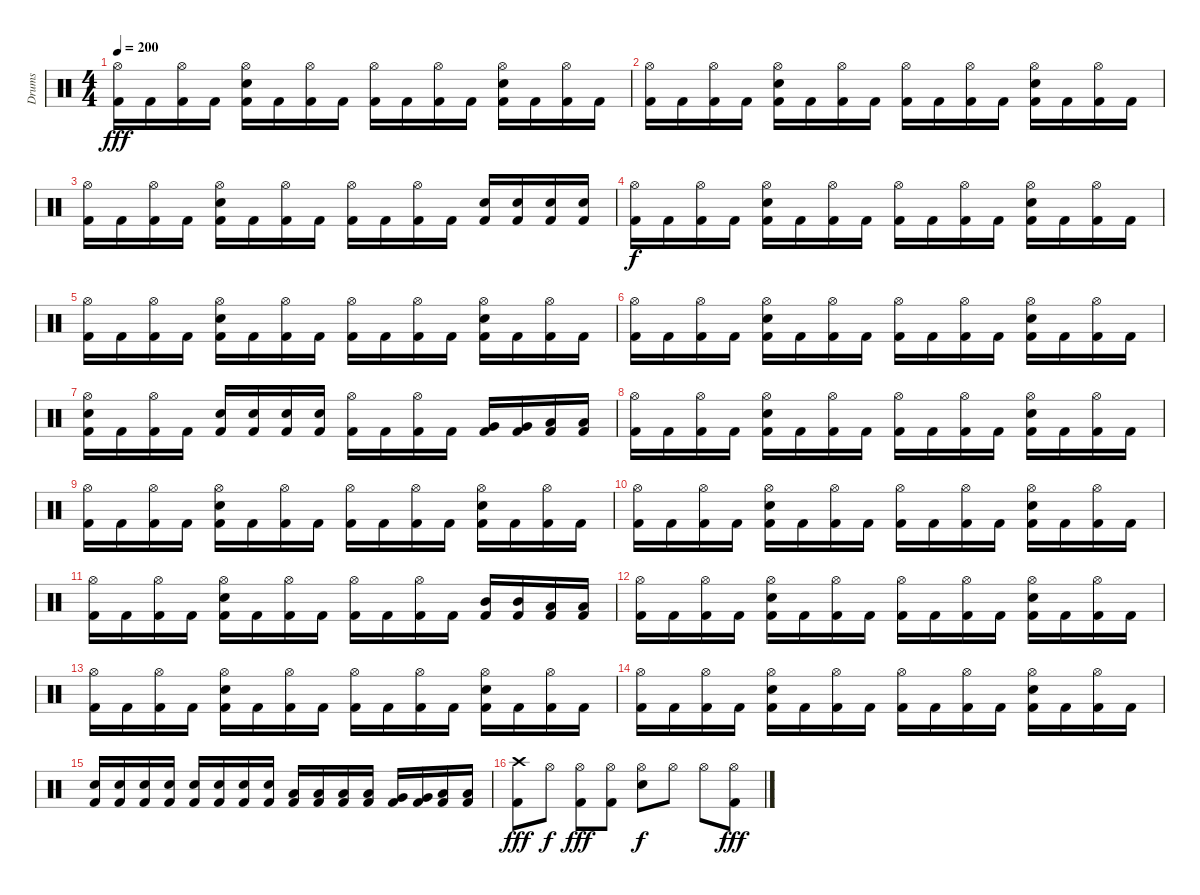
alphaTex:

\track ("Drums" "Drums") {instrument percussion}
\staff {score}
\articulation defaults
\ts (4 4)
\tempo 200
\clef neutral
\ks c
("Hi-Hat (open)" "Kick (hit) 2").16{dy fff} "Kick (hit) 2".16 ("Hi-Hat (open)" "Kick (hit) 2").16 "Kick (hit) 2".16 ("Hi-Hat (open)" "Electric Snare (hit)" "Kick (hit) 2").16 "Kick (hit) 2".16 ("Hi-Hat (open)" "Kick (hit) 2").16 "Kick (hit) 2".16 ("Hi-Hat (open)" "Kick (hit) 2").16 "Kick (hit) 2".16 ("Hi-Hat (open)" "Kick (hit) 2").16 "Kick (hit) 2".16 ("Hi-Hat (open)" "Electric Snare (hit)" "Kick (hit) 2").16 "Kick (hit) 2".16 ("Hi-Hat (open)" "Kick (hit) 2").16 "Kick (hit) 2".16 |
("Hi-Hat (open)" "Kick (hit) 2").16 "Kick (hit) 2".16 ("Hi-Hat (open)" "Kick (hit) 2").16 "Kick (hit) 2".16 ("Hi-Hat (open)" "Electric Snare (hit)" "Kick (hit) 2").16 "Kick (hit) 2".16 ("Hi-Hat (open)" "Kick (hit) 2").16 "Kick (hit) 2".16 ("Hi-Hat (open)" "Kick (hit) 2").16 "Kick (hit) 2".16 ("Hi-Hat (open)" "Kick (hit) 2").16 "Kick (hit) 2".16 ("Hi-Hat (open)" "Electric Snare (hit)" "Kick (hit) 2").16 "Kick (hit) 2".16 ("Hi-Hat (open)" "Kick (hit) 2").16 "Kick (hit) 2".16 |
("Hi-Hat (open)" "Kick (hit) 2").16 "Kick (hit) 2".16 ("Hi-Hat (open)" "Kick (hit) 2").16 "Kick (hit) 2".16 ("Hi-Hat (open)" "Electric Snare (hit)" "Kick (hit) 2").16 "Kick (hit) 2".16 ("Hi-Hat (open)" "Kick (hit) 2").16 "Kick (hit) 2".16 ("Hi-Hat (open)" "Kick (hit) 2").16 "Kick (hit) 2".16 ("Hi-Hat (open)" "Kick (hit) 2").16 "Kick (hit) 2".16 ("Electric Snare (hit)" "Kick (hit) 2").16 ("Electric Snare (hit)" "Kick (hit) 2").16 ("Electric Snare (hit)" "Kick (hit) 2").16 ("Electric Snare (hit)" "Kick (hit) 2").16 |
("Hi-Hat (open)" "Kick (hit) 2").16{dy f} "Kick (hit) 2".16 ("Hi-Hat (open)" "Kick (hit) 2").16 "Kick (hit) 2".16 ("Hi-Hat (open)" "Electric Snare (hit)" "Kick (hit) 2").16 "Kick (hit) 2".16 ("Hi-Hat (open)" "Kick (hit) 2").16 "Kick (hit) 2".16 ("Hi-Hat (open)" "Kick (hit) 2").16 "Kick (hit) 2".16 ("Hi-Hat (open)" "Kick (hit) 2").16 "Kick (hit) 2".16 ("Hi-Hat (open)" "Electric Snare (hit)" "Kick (hit) 2").16 "Kick (hit) 2".16 ("Hi-Hat (open)" "Kick (hit) 2").16 "Kick (hit) 2".16 |
("Hi-Hat (open)" "Kick (hit) 2").16 "Kick (hit) 2".16 ("Hi-Hat (open)" "Kick (hit) 2").16 "Kick (hit) 2".16 ("Hi-Hat (open)" "Electric Snare (hit)" "Kick (hit) 2").16 "Kick (hit) 2".16 ("Hi-Hat (open)" "Kick (hit) 2").16 "Kick (hit) 2".16 ("Hi-Hat (open)" "Kick (hit) 2").16 "Kick (hit) 2".16 ("Hi-Hat (open)" "Kick (hit) 2").16 "Kick (hit) 2".16 ("Hi-Hat (open)" "Electric Snare (hit)" "Kick (hit) 2").16 "Kick (hit) 2".16 ("Hi-Hat (open)" "Kick (hit) 2").16 "Kick (hit) 2".16 |
("Hi-Hat (open)" "Kick (hit) 2").16 "Kick (hit) 2".16 ("Hi-Hat (open)" "Kick (hit) 2").16 "Kick (hit) 2".16 ("Hi-Hat (open)" "Electric Snare (hit)" "Kick (hit) 2").16 "Kick (hit) 2".16 ("Hi-Hat (open)" "Kick (hit) 2").16 "Kick (hit) 2".16 ("Hi-Hat (open)" "Kick (hit) 2").16 "Kick (hit) 2".16 ("Hi-Hat (open)" "Kick (hit) 2").16 "Kick (hit) 2".16 ("Hi-Hat (open)" "Electric Snare (hit)" "Kick (hit) 2").16 "Kick (hit) 2".16 ("Hi-Hat (open)" "Kick (hit) 2").16 "Kick (hit) 2".16 |
("Hi-Hat (open)" "Electric Snare (hit)" "Kick (hit) 2").16 "Kick (hit) 2".16 ("Hi-Hat (open)" "Kick (hit) 2").16 "Kick (hit) 2".16 ("Electric Snare (hit)" "Kick (hit) 2").16 ("Electric Snare (hit)" "Kick (hit) 2").16 ("Electric Snare (hit)" "Kick (hit) 2").16 ("Electric Snare (hit)" "Kick (hit) 2").16 ("Hi-Hat (open)" "Kick (hit) 2").16 "Kick (hit) 2".16 ("Hi-Hat (open)" "Kick (hit) 2").16 "Kick (hit) 2".16 ("Very Low Tom (hit)" "Kick (hit) 2").16 ("Very Low Tom (hit)" "Kick (hit) 2").16 ("Low Floor Tom (hit)" "Kick (hit) 2").16 ("Low Floor Tom (hit)" "Kick (hit) 2").16 |
("Hi-Hat (open)" "Kick (hit) 2").16 "Kick (hit) 2".16 ("Hi-Hat (open)" "Kick (hit) 2").16 "Kick (hit) 2".16 ("Hi-Hat (open)" "Electric Snare (hit)" "Kick (hit) 2").16 "Kick (hit) 2".16 ("Hi-Hat (open)" "Kick (hit) 2").16 "Kick (hit) 2".16 ("Hi-Hat (open)" "Kick (hit) 2").16 "Kick (hit) 2".16 ("Hi-Hat (open)" "Kick (hit) 2").16 "Kick (hit) 2".16 ("Hi-Hat (open)" "Electric Snare (hit)" "Kick (hit) 2").16 "Kick (hit) 2".16 ("Hi-Hat (open)" "Kick (hit) 2").16 "Kick (hit) 2".16 |
("Hi-Hat (open)" "Kick (hit) 2").16 "Kick (hit) 2".16 ("Hi-Hat (open)" "Kick (hit) 2").16 "Kick (hit) 2".16 ("Hi-Hat (open)" "Electric Snare (hit)" "Kick (hit) 2").16 "Kick (hit) 2".16 ("Hi-Hat (open)" "Kick (hit) 2").16 "Kick (hit) 2".16 ("Hi-Hat (open)" "Kick (hit) 2").16 "Kick (hit) 2".16 ("Hi-Hat (open)" "Kick (hit) 2").16 "Kick (hit) 2".16 ("Hi-Hat (open)" "Electric Snare (hit)" "Kick (hit) 2").16 "Kick (hit) 2".16 ("Hi-Hat (open)" "Kick (hit) 2").16 "Kick (hit) 2".16 |
("Hi-Hat (open)" "Kick (hit) 2").16 "Kick (hit) 2".16 ("Hi-Hat (open)" "Kick (hit) 2").16 "Kick (hit) 2".16 ("Hi-Hat (open)" "Electric Snare (hit)" "Kick (hit) 2").16 "Kick (hit) 2".16 ("Hi-Hat (open)" "Kick (hit) 2").16 "Kick (hit) 2".16 ("Hi-Hat (open)" "Kick (hit) 2").16 "Kick (hit) 2".16 ("Hi-Hat (open)" "Kick (hit) 2").16 "Kick (hit) 2".16 ("Hi-Hat (open)" "Electric Snare (hit)" "Kick (hit) 2").16 "Kick (hit) 2".16 ("Hi-Hat (open)" "Kick (hit) 2").16 "Kick (hit) 2".16 |
("Hi-Hat (open)" "Kick (hit) 2").16 "Kick (hit) 2".16 ("Hi-Hat (open)" "Kick (hit) 2").16 "Kick (hit) 2".16 ("Hi-Hat (open)" "Electric Snare (hit)" "Kick (hit) 2").16 "Kick (hit) 2".16 ("Hi-Hat (open)" "Kick (hit) 2").16 "Kick (hit) 2".16 ("Hi-Hat (open)" "Kick (hit) 2").16 "Kick (hit) 2".16 ("Hi-Hat (open)" "Kick (hit) 2").16 "Kick (hit) 2".16 ("Mid Tom (hit)" "Kick (hit) 2").16 ("Mid Tom (hit)" "Kick (hit) 2").16 ("Low Tom (hit)" "Kick (hit) 2").16 ("Low Tom (hit)" "Kick (hit) 2").16 |
("Hi-Hat (open)" "Kick (hit) 2").16 "Kick (hit) 2".16 ("Hi-Hat (open)" "Kick (hit) 2").16 "Kick (hit) 2".16 ("Hi-Hat (open)" "Electric Snare (hit)" "Kick (hit) 2").16 "Kick (hit) 2".16 ("Hi-Hat (open)" "Kick (hit) 2").16 "Kick (hit) 2".16 ("Hi-Hat (open)" "Kick (hit) 2").16 "Kick (hit) 2".16 ("Hi-Hat (open)" "Kick (hit) 2").16 "Kick (hit) 2".16 ("Hi-Hat (open)" "Electric Snare (hit)" "Kick (hit) 2").16 "Kick (hit) 2".16 ("Hi-Hat (open)" "Kick (hit) 2").16 "Kick (hit) 2".16 |
("Hi-Hat (open)" "Kick (hit) 2").16 "Kick (hit) 2".16 ("Hi-Hat (open)" "Kick (hit) 2").16 "Kick (hit) 2".16 ("Hi-Hat (open)" "Electric Snare (hit)" "Kick (hit) 2").16 "Kick (hit) 2".16 ("Hi-Hat (open)" "Kick (hit) 2").16 "Kick (hit) 2".16 ("Hi-Hat (open)" "Kick (hit) 2").16 "Kick (hit) 2".16 ("Hi-Hat (open)" "Kick (hit) 2").16 "Kick (hit) 2".16 ("Hi-Hat (open)" "Electric Snare (hit)" "Kick (hit) 2").16 "Kick (hit) 2".16 ("Hi-Hat (open)" "Kick (hit) 2").16 "Kick (hit) 2".16 |
("Hi-Hat (open)" "Kick (hit) 2").16 "Kick (hit) 2".16 ("Hi-Hat (open)" "Kick (hit) 2").16 "Kick (hit) 2".16 ("Hi-Hat (open)" "Electric Snare (hit)" "Kick (hit) 2").16 "Kick (hit) 2".16 ("Hi-Hat (open)" "Kick (hit) 2").16 "Kick (hit) 2".16 ("Hi-Hat (open)" "Kick (hit) 2").16 "Kick (hit) 2".16 ("Hi-Hat (open)" "Kick (hit) 2").16 "Kick (hit) 2".16 ("Hi-Hat (open)" "Electric Snare (hit)" "Kick (hit) 2").16 "Kick (hit) 2".16 ("Hi-Hat (open)" "Kick (hit) 2").16 "Kick (hit) 2".16 |
("Electric Snare (hit)" "Kick (hit) 2").16 ("Electric Snare (hit)" "Kick (hit) 2").16 ("Electric Snare (hit)" "Kick (hit) 2").16 ("Electric Snare (hit)" "Kick (hit) 2").16 ("Electric Snare (hit)" "Kick (hit) 2").16 ("Electric Snare (hit)" "Kick (hit) 2").16 ("Electric Snare (hit)" "Kick (hit) 2").16 ("Electric Snare (hit)" "Kick (hit) 2").16 ("Low Tom (hit)" "Kick (hit) 2").16 ("Low Tom (hit)" "Kick (hit) 2").16 ("Low Tom (hit)" "Kick (hit) 2").16 ("Low Tom (hit)" "Kick (hit) 2").16 ("Very Low Tom (hit)" "Kick (hit) 2").16 ("Very Low Tom (hit)" "Kick (hit) 2").16 ("Low Floor Tom (hit)" "Kick (hit) 2").16 ("Low Floor Tom (hit)" "Kick (hit) 2").16 |
("Crash high (hit)" "Kick (hit) 2").8{dy fff} "Hi-Hat (open)".8{dy f} ("Hi-Hat (open)" "Kick (hit) 2").8{dy fff} ("Hi-Hat (open)" "Kick (hit) 2").8 ("Hi-Hat (open)" "Electric Snare (hit)").8{dy f} "Hi-Hat (open)".8 "Hi-Hat (open)".8 ("Hi-Hat (open)" "Kick (hit) 2").8{dy fff}
